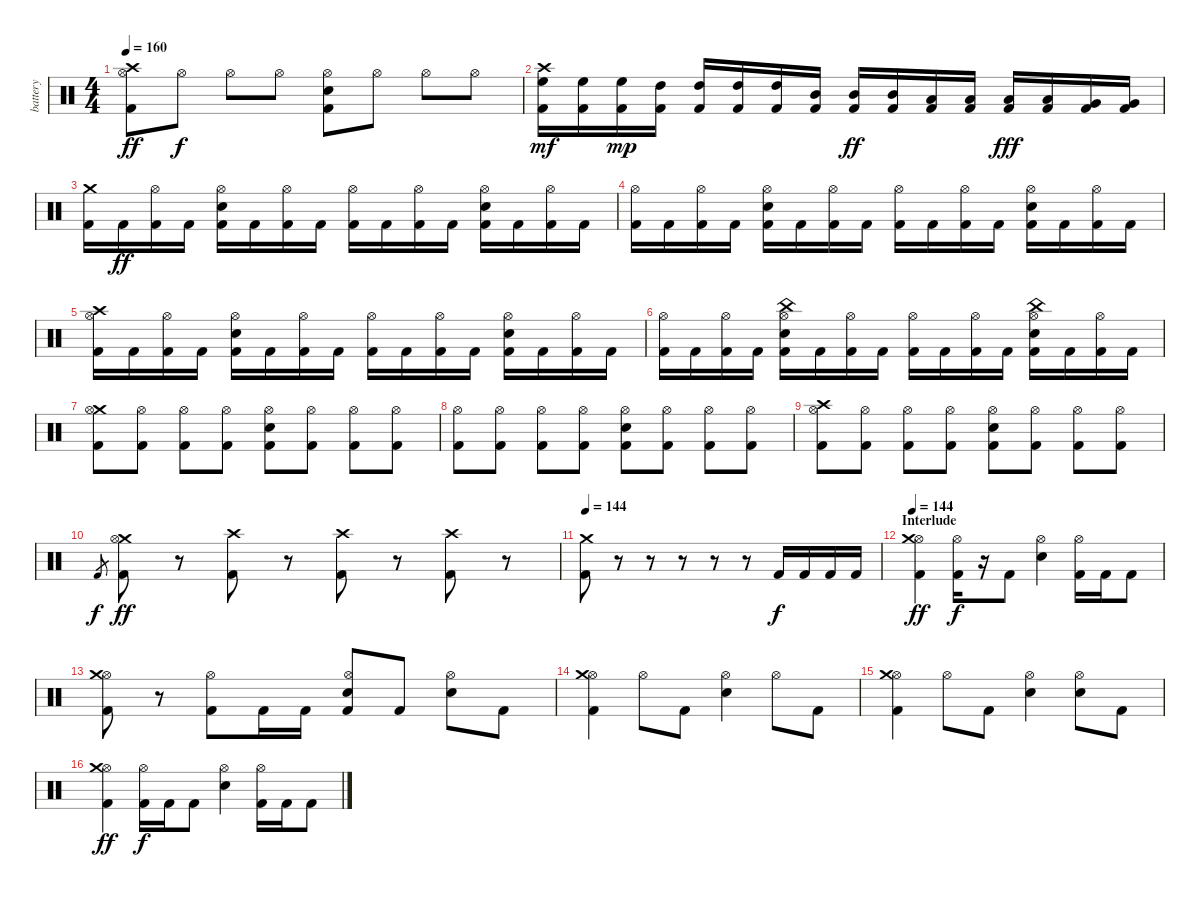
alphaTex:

\track ("battery" "battery") {instrument percussion}
\staff {score}
\articulation defaults
\ts (4 4)
\tempo 160
\clef neutral
\ks c
("Kick (hit) 2" "Crash high (hit)" "Hi-Hat (open)").8{dy ff} "Hi-Hat (open)".8{dy f} "Hi-Hat (open)".8 "Hi-Hat (open)".8 ("Kick (hit) 2" "Electric Snare (hit)" "Hi-Hat (open)").8 "Hi-Hat (open)".8 "Hi-Hat (open)".8 "Hi-Hat (open)".8 |
("Kick (hit) 2" "Crash high (hit)" "High Floor Tom (hit)").16{dy mf} ("Kick (hit) 2" "High Floor Tom (hit)").16 ("Kick (hit) 2" "High Floor Tom (hit)").16{dy mp} ("Kick (hit) 2" "High Tom (hit)").16 ("Kick (hit) 2" "High Tom (hit)").16 ("Kick (hit) 2" "High Tom (hit)").16 ("Kick (hit) 2" "High Tom (hit)").16 ("Kick (hit) 2" "Mid Tom (hit)").16 ("Kick (hit) 2" "Mid Tom (hit)").16{dy ff} ("Kick (hit) 2" "Mid Tom (hit)").16 ("Kick (hit) 2" "Low Tom (hit)").16 ("Kick (hit) 2" "Low Tom (hit)").16 ("Kick (hit) 2" "Low Tom (hit)").16{dy fff} ("Kick (hit) 2" "Low Tom (hit)").16 ("Kick (hit) 2" "Very Low Tom (hit)").16 ("Kick (hit) 2" "Very Low Tom (hit)").16 |
("Kick (hit) 2" "Crash medium (hit)").16 "Kick (hit) 2".16{dy ff} ("Kick (hit) 2" "Hi-Hat (open)").16 "Kick (hit) 2".16 ("Kick (hit) 2" "Electric Snare (hit)" "Hi-Hat (open)").16 "Kick (hit) 2".16 ("Kick (hit) 2" "Hi-Hat (open)").16 "Kick (hit) 2".16 ("Kick (hit) 2" "Hi-Hat (open)").16 "Kick (hit) 2".16 ("Kick (hit) 2" "Hi-Hat (open)").16 "Kick (hit) 2".16 ("Kick (hit) 2" "Electric Snare (hit)" "Hi-Hat (open)").16 "Kick (hit) 2".16 ("Kick (hit) 2" "Hi-Hat (open)").16 "Kick (hit) 2".16 |
("Kick (hit) 2" "Hi-Hat (open)").16 "Kick (hit) 2".16 ("Kick (hit) 2" "Hi-Hat (open)").16 "Kick (hit) 2".16 ("Kick (hit) 2" "Electric Snare (hit)" "Hi-Hat (open)").16 "Kick (hit) 2".16 ("Kick (hit) 2" "Hi-Hat (open)").16 "Kick (hit) 2".16 ("Kick (hit) 2" "Hi-Hat (open)").16 "Kick (hit) 2".16 ("Kick (hit) 2" "Hi-Hat (open)").16 "Kick (hit) 2".16 ("Kick (hit) 2" "Electric Snare (hit)" "Hi-Hat (open)").16 "Kick (hit) 2".16 ("Kick (hit) 2" "Hi-Hat (open)").16 "Kick (hit) 2".16 |
("Kick (hit) 2" "Crash high (hit)" "Hi-Hat (open)").16 "Kick (hit) 2".16 ("Kick (hit) 2" "Hi-Hat (open)").16 "Kick (hit) 2".16 ("Kick (hit) 2" "Electric Snare (hit)" "Hi-Hat (open)").16 "Kick (hit) 2".16 ("Kick (hit) 2" "Hi-Hat (open)").16 "Kick (hit) 2".16 ("Kick (hit) 2" "Hi-Hat (open)").16 "Kick (hit) 2".16 ("Kick (hit) 2" "Hi-Hat (open)").16 "Kick (hit) 2".16 ("Kick (hit) 2" "Electric Snare (hit)" "Hi-Hat (open)").16 "Kick (hit) 2".16 ("Kick (hit) 2" "Hi-Hat (open)").16 "Kick (hit) 2".16 |
("Kick (hit) 2" "Hi-Hat (open)").16 "Kick (hit) 2".16 ("Kick (hit) 2" "Hi-Hat (open)").16 "Kick (hit) 2".16 ("Kick (hit) 2" "China (hit)" "Electric Snare (hit)" "Hi-Hat (open)").16 "Kick (hit) 2".16 ("Kick (hit) 2" "Hi-Hat (open)").16 "Kick (hit) 2".16 ("Kick (hit) 2" "Hi-Hat (open)").16 "Kick (hit) 2".16 ("Kick (hit) 2" "Hi-Hat (open)").16 "Kick (hit) 2".16 ("Kick (hit) 2" "China (hit)" "Electric Snare (hit)" "Hi-Hat (open)").16 "Kick (hit) 2".16 ("Kick (hit) 2" "Hi-Hat (open)").16 "Kick (hit) 2".16 |
("Kick (hit) 2" "Crash medium (hit)" "Hi-Hat (open)").8 ("Kick (hit) 2" "Hi-Hat (open)").8 ("Kick (hit) 2" "Hi-Hat (open)").8 ("Kick (hit) 2" "Hi-Hat (open)").8 ("Kick (hit) 2" "Electric Snare (hit)" "Hi-Hat (open)").8 ("Kick (hit) 2" "Hi-Hat (open)").8 ("Kick (hit) 2" "Hi-Hat (open)").8 ("Kick (hit) 2" "Hi-Hat (open)").8 |
("Kick (hit) 2" "Hi-Hat (open)").8 ("Kick (hit) 2" "Hi-Hat (open)").8 ("Kick (hit) 2" "Hi-Hat (open)").8 ("Kick (hit) 2" "Hi-Hat (open)").8 ("Kick (hit) 2" "Electric Snare (hit)" "Hi-Hat (open)").8 ("Kick (hit) 2" "Hi-Hat (open)").8 ("Kick (hit) 2" "Hi-Hat (open)").8 ("Kick (hit) 2" "Hi-Hat (open)").8 |
("Kick (hit) 2" "Crash high (hit)" "Hi-Hat (open)").8 ("Kick (hit) 2" "Hi-Hat (open)").8 ("Kick (hit) 2" "Hi-Hat (open)").8 ("Kick (hit) 2" "Hi-Hat (open)").8 ("Kick (hit) 2" "Electric Snare (hit)" "Hi-Hat (open)").8 ("Kick (hit) 2" "Hi-Hat (open)").8 ("Kick (hit) 2" "Hi-Hat (open)").8 ("Kick (hit) 2" "Hi-Hat (open)").8 |
"Kick (hit) 2".8{gr dy f} ("Crash medium (hit)" "Hi-Hat (open)" "Kick (hit) 2").8{dy ff} r.8 ("Crash high (hit)" "Kick (hit) 2").8 r.8 ("Crash high (hit)" "Kick (hit) 2").8 r.8 ("Crash high (hit)" "Kick (hit) 2").8 r.8 |
\tempo 144
("Crash medium (hit)" "Kick (hit) 2").8 r.8 r.8 r.8 r.8 r.8 "Kick (hit) 2".16{dy f} "Kick (hit) 2".16 "Kick (hit) 2".16 "Kick (hit) 2".16 |
\section ("" "Interlude")
\tempo 144
("Kick (hit) 2" "Hi-Hat (open)" "Crash medium (hit)").4{dy ff} ("Kick (hit) 2" "Hi-Hat (open)").16{dy f} r.16 "Kick (hit) 2".8 ("Electric Snare (hit)" "Hi-Hat (open)").4 ("Kick (hit) 2" "Hi-Hat (open)").16 "Kick (hit) 2".16 "Kick (hit) 2".8 |
("Kick (hit) 2" "Hi-Hat (open)" "Crash medium (hit)").8 r.8 ("Kick (hit) 2" "Hi-Hat (open)").8 "Kick (hit) 2".16 "Kick (hit) 2".16 ("Electric Snare (hit)" "Hi-Hat (open)" "Kick (hit) 2").8 "Kick (hit) 2".8 ("Electric Snare (hit)" "Hi-Hat (open)").8 "Kick (hit) 2".8 |
("Kick (hit) 2" "Hi-Hat (open)" "Crash medium (hit)").4 "Hi-Hat (open)".8 "Kick (hit) 2".8 ("Electric Snare (hit)" "Hi-Hat (open)").4 "Hi-Hat (open)".8 "Kick (hit) 2".8 |
("Kick (hit) 2" "Hi-Hat (open)" "Crash medium (hit)").4 "Hi-Hat (open)".8 "Kick (hit) 2".8 ("Electric Snare (hit)" "Hi-Hat (open)").4 ("Electric Snare (hit)" "Hi-Hat (open)").8 "Kick (hit) 2".8 |
("Kick (hit) 2" "Hi-Hat (open)" "Crash medium (hit)").4{dy ff} ("Kick (hit) 2" "Hi-Hat (open)").16{dy f} "Kick (hit) 2".16 "Kick (hit) 2".8 ("Electric Snare (hit)" "Hi-Hat (open)").4 ("Kick (hit) 2" "Hi-Hat (open)").16 "Kick (hit) 2".16 "Kick (hit) 2".8
